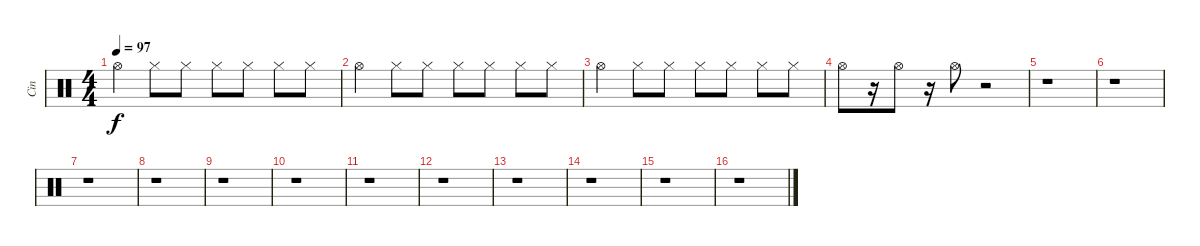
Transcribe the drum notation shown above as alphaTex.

\track ("Cin" "Cin") {instrument percussion}
\staff {score}
\articulation defaults
\ts (4 4)
\tempo 97
\clef neutral
\ks c "Hi-Hat (open)".4{dy f} "Hi-Hat (closed)".8 "Hi-Hat (closed)".8 "Hi-Hat (closed)".8 "Hi-Hat (closed)".8 "Hi-Hat (closed)".8 "Hi-Hat (closed)".8
|
"Hi-Hat (open)".4 "Hi-Hat (closed)".8 "Hi-Hat (closed)".8 "Hi-Hat (closed)".8 "Hi-Hat (closed)".8 "Hi-Hat (closed)".8 "Hi-Hat (closed)".8 |
"Hi-Hat (open)".4 "Hi-Hat (closed)".8 "Hi-Hat (closed)".8 "Hi-Hat (closed)".8 "Hi-Hat (closed)".8 "Hi-Hat (closed)".8 "Hi-Hat (closed)".8 |
"Hi-Hat (open)".8 r.16 "Hi-Hat (open)".8 r.16 "Hi-Hat (open)".8 r.2 |
r.1 |
r.1 |
r.1 |
r.1 |
r.1 |
r.1 |
r.1 |
r.1 |
r.1 |
r.1 |
r.1 |
r.1
